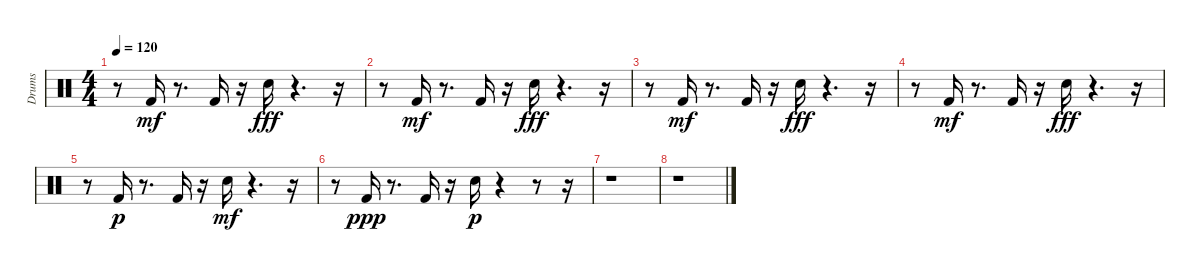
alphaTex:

\track ("Drums" "Drums") {instrument percussion}
\staff {score}
\articulation defaults
\ts (4 4)
\tempo 120
\clef neutral
\ks c
r.8{dy fff} "Kick (hit) 2".16{dy mf} r.8{d} "Kick (hit) 2".16 r.16 "Snare (hit) 2".16{dy fff} r.4{d} r.16 |
r.8 "Kick (hit) 2".16{dy mf} r.8{d} "Kick (hit) 2".16 r.16 "Snare (hit) 2".16{dy fff} r.4{d} r.16 |
r.8 "Kick (hit) 2".16{dy mf} r.8{d} "Kick (hit) 2".16 r.16 "Snare (hit) 2".16{dy fff} r.4{d} r.16 |
r.8 "Kick (hit) 2".16{dy mf} r.8{d} "Kick (hit) 2".16 r.16 "Snare (hit) 2".16{dy fff} r.4{d} r.16 |
r.8 "Kick (hit) 2".16{dy p} r.8{d} "Kick (hit) 2".16 r.16 "Snare (hit) 2".16{dy mf} r.4{d} r.16 |
r.8 "Kick (hit) 2".16{dy ppp} r.8{d} "Kick (hit) 2".16 r.16 "Snare (hit) 2".16{dy p} r.4 r.8 r.16 |
r.1 |
r.1
